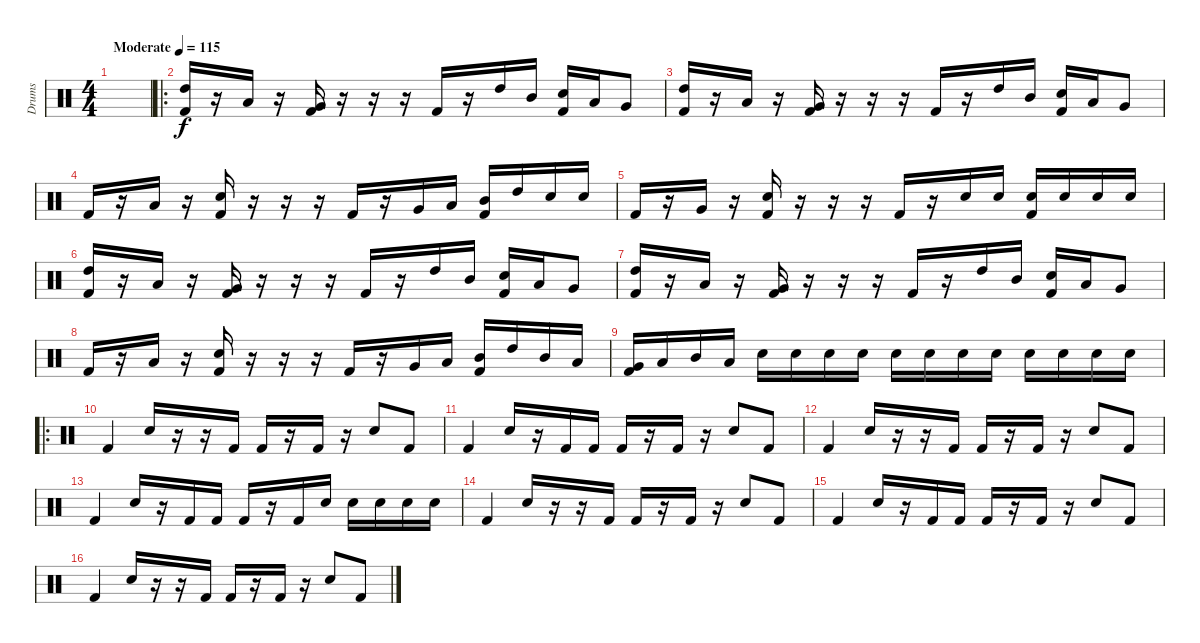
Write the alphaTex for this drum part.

\track ("Drums" "Drums") {instrument percussion}
\staff {score}
\articulation defaults
\ts (4 4)
\tempo (115 "Moderate")
\clef neutral
\ks c
|
\ro
("High Tom (hit)" "Kick (hit) 2").16 r.16 "Low Tom (hit)".16 r.16 ("Very Low Tom (hit)" "Kick (hit) 2").16 r.16 r.16 r.16 "Kick (hit) 2".16 r.16 "High Tom (hit)".16 "Mid Tom (hit)".16 ("Snare (hit) 2" "Kick (hit) 2").16 "Low Tom (hit)".16 "Very Low Tom (hit)".8 |
("High Tom (hit)" "Kick (hit) 2").16 r.16 "Low Tom (hit)".16 r.16 ("Very Low Tom (hit)" "Kick (hit) 2").16 r.16 r.16 r.16 "Kick (hit) 2".16 r.16 "High Tom (hit)".16 "Mid Tom (hit)".16 ("Snare (hit) 2" "Kick (hit) 2").16 "Low Tom (hit)".16 "Very Low Tom (hit)".8 |
"Kick (hit) 2".16 r.16 "Low Tom (hit)".16 r.16 ("Snare (hit) 2" "Kick (hit) 2").16 r.16 r.16 r.16 "Kick (hit) 2".16 r.16 "Very Low Tom (hit)".16 "Low Tom (hit)".16 ("Mid Tom (hit)" "Kick (hit) 2").16 "High Tom (hit)".16 "Snare (hit) 2".16 "Snare (hit) 2".16 |
"Kick (hit) 2".16 r.16 "Very Low Tom (hit)".16 r.16 ("Snare (hit) 2" "Kick (hit) 2").16 r.16 r.16 r.16 "Kick (hit) 2".16 r.16 "Snare (hit) 2".16 "Snare (hit) 2".16 ("Snare (hit) 2" "Kick (hit) 2").16 "Snare (hit) 2".16 "Snare (hit) 2".16 "Snare (hit) 2".16 |
("High Tom (hit)" "Kick (hit) 2").16 r.16 "Low Tom (hit)".16 r.16 ("Very Low Tom (hit)" "Kick (hit) 2").16 r.16 r.16 r.16 "Kick (hit) 2".16 r.16 "High Tom (hit)".16 "Mid Tom (hit)".16 ("Snare (hit) 2" "Kick (hit) 2").16 "Low Tom (hit)".16 "Very Low Tom (hit)".8 |
("High Tom (hit)" "Kick (hit) 2").16 r.16 "Low Tom (hit)".16 r.16 ("Very Low Tom (hit)" "Kick (hit) 2").16 r.16 r.16 r.16 "Kick (hit) 2".16 r.16 "High Tom (hit)".16 "Mid Tom (hit)".16 ("Snare (hit) 2" "Kick (hit) 2").16 "Low Tom (hit)".16 "Very Low Tom (hit)".8 |
"Kick (hit) 2".16 r.16 "Low Tom (hit)".16 r.16 ("Snare (hit) 2" "Kick (hit) 2").16 r.16 r.16 r.16 "Kick (hit) 2".16 r.16 "Very Low Tom (hit)".16 "Low Tom (hit)".16 ("Mid Tom (hit)" "Kick (hit) 2").16 "High Tom (hit)".16 "Mid Tom (hit)".16 "Low Tom (hit)".16 |
("Very Low Tom (hit)" "Kick (hit) 2").16 "Low Tom (hit)".16 "Mid Tom (hit)".16 "Low Tom (hit)".16 "Snare (hit) 2".16 "Snare (hit) 2".16 "Snare (hit) 2".16 "Snare (hit) 2".16 "Snare (hit) 2".16 "Snare (hit) 2".16 "Snare (hit) 2".16 "Snare (hit) 2".16 "Snare (hit) 2".16 "Snare (hit) 2".16 "Snare (hit) 2".16 "Snare (hit) 2".16 |
\ro "Kick (hit) 2".4 "Snare (hit) 2".16
r.16 r.16 "Kick (hit) 2".16 "Kick (hit) 2".16 r.16 "Kick (hit) 2".16 r.16 "Snare (hit) 2".8 "Kick (hit) 2".8 |
"Kick (hit) 2".4 "Snare (hit) 2".16 r.16 "Kick (hit) 2".16 "Kick (hit) 2".16 "Kick (hit) 2".16 r.16 "Kick (hit) 2".16 r.16 "Snare (hit) 2".8 "Kick (hit) 2".8 |
"Kick (hit) 2".4 "Snare (hit) 2".16 r.16 r.16 "Kick (hit) 2".16 "Kick (hit) 2".16 r.16 "Kick (hit) 2".16 r.16 "Snare (hit) 2".8 "Kick (hit) 2".8 |
"Kick (hit) 2".4 "Snare (hit) 2".16 r.16 "Kick (hit) 2".16 "Kick (hit) 2".16 "Kick (hit) 2".16 r.16 "Kick (hit) 2".16 "Snare (hit) 2".16 "Snare (hit) 2".16 "Snare (hit) 2".16 "Snare (hit) 2".16 "Snare (hit) 2".16 |
"Kick (hit) 2".4 "Snare (hit) 2".16 r.16 r.16 "Kick (hit) 2".16 "Kick (hit) 2".16 r.16 "Kick (hit) 2".16 r.16 "Snare (hit) 2".8 "Kick (hit) 2".8 |
"Kick (hit) 2".4 "Snare (hit) 2".16 r.16 "Kick (hit) 2".16 "Kick (hit) 2".16 "Kick (hit) 2".16 r.16 "Kick (hit) 2".16 r.16 "Snare (hit) 2".8 "Kick (hit) 2".8 |
"Kick (hit) 2".4 "Snare (hit) 2".16 r.16 r.16 "Kick (hit) 2".16 "Kick (hit) 2".16 r.16 "Kick (hit) 2".16 r.16 "Snare (hit) 2".8 "Kick (hit) 2".8
